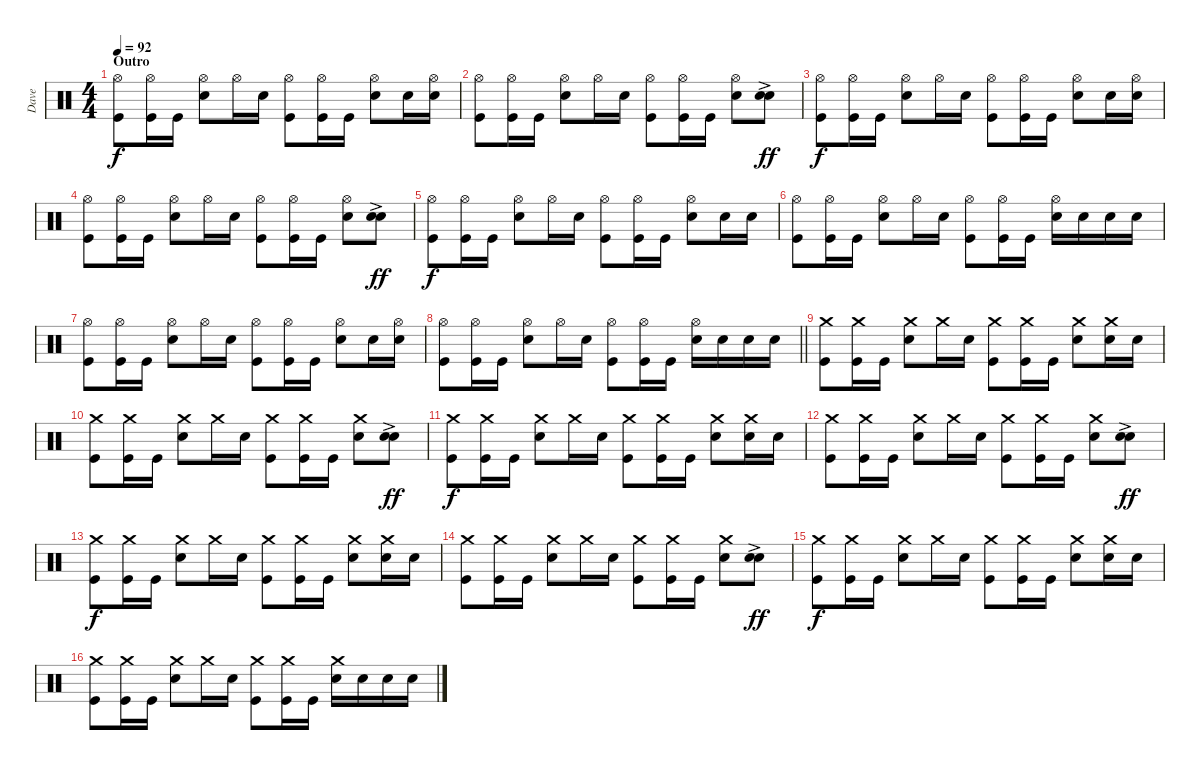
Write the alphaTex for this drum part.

\track ("Dave" "Dave") {instrument percussion}
\staff {score}
\articulation defaults
\ts (4 4)
\section ("" "Outro")
\tempo 92
\clef neutral
\ks c
("Hi-Hat (open)" "Kick (hit)").8{dy f} ("Hi-Hat (open)" "Kick (hit)").16 "Kick (hit)".16 ("Hi-Hat (open)" "Electric Snare (hit)").8 "Hi-Hat (open)".16 "Electric Snare (hit)".16 ("Hi-Hat (open)" "Kick (hit)").8 ("Hi-Hat (open)" "Kick (hit)").16 "Kick (hit)".16 ("Hi-Hat (open)" "Electric Snare (hit)").8 "Electric Snare (hit)".16 ("Hi-Hat (open)" "Electric Snare (hit)").16 |
("Hi-Hat (open)" "Kick (hit)").8 ("Hi-Hat (open)" "Kick (hit)").16 "Kick (hit)".16 ("Hi-Hat (open)" "Electric Snare (hit)").8 "Hi-Hat (open)".16 "Electric Snare (hit)".16 ("Hi-Hat (open)" "Kick (hit)").8 ("Hi-Hat (open)" "Kick (hit)").16 "Kick (hit)".16 ("Hi-Hat (open)" "Electric Snare (hit)").8 ("Electric Snare (hit)"{ac} "Electric Snare (hit)"{ac}).8{dy ff} |
("Hi-Hat (open)" "Kick (hit)").8{dy f} ("Hi-Hat (open)" "Kick (hit)").16 "Kick (hit)".16 ("Hi-Hat (open)" "Electric Snare (hit)").8 "Hi-Hat (open)".16 "Electric Snare (hit)".16 ("Hi-Hat (open)" "Kick (hit)").8 ("Hi-Hat (open)" "Kick (hit)").16 "Kick (hit)".16 ("Hi-Hat (open)" "Electric Snare (hit)").8 "Electric Snare (hit)".16 ("Hi-Hat (open)" "Electric Snare (hit)").16 |
("Hi-Hat (open)" "Kick (hit)").8 ("Hi-Hat (open)" "Kick (hit)").16 "Kick (hit)".16 ("Hi-Hat (open)" "Electric Snare (hit)").8 "Hi-Hat (open)".16 "Electric Snare (hit)".16 ("Hi-Hat (open)" "Kick (hit)").8 ("Hi-Hat (open)" "Kick (hit)").16 "Kick (hit)".16 ("Hi-Hat (open)" "Electric Snare (hit)").8 ("Electric Snare (hit)"{ac} "Electric Snare (hit)"{ac}).8{dy ff} |
("Hi-Hat (open)" "Kick (hit)").8{dy f} ("Hi-Hat (open)" "Kick (hit)").16 "Kick (hit)".16 ("Hi-Hat (open)" "Electric Snare (hit)").8 "Hi-Hat (open)".16 "Electric Snare (hit)".16 ("Hi-Hat (open)" "Kick (hit)").8 ("Hi-Hat (open)" "Kick (hit)").16 "Kick (hit)".16 ("Hi-Hat (open)" "Electric Snare (hit)").8 "Electric Snare (hit)".16 "Electric Snare (hit)".16 |
("Hi-Hat (open)" "Kick (hit)").8 ("Hi-Hat (open)" "Kick (hit)").16 "Kick (hit)".16 ("Hi-Hat (open)" "Electric Snare (hit)").8 "Hi-Hat (open)".16 "Electric Snare (hit)".16 ("Hi-Hat (open)" "Kick (hit)").8 ("Hi-Hat (open)" "Kick (hit)").16 "Kick (hit)".16 ("Hi-Hat (open)" "Electric Snare (hit)").16 "Electric Snare (hit)".16 "Electric Snare (hit)".16 "Electric Snare (hit)".16 |
("Hi-Hat (open)" "Kick (hit)").8 ("Hi-Hat (open)" "Kick (hit)").16 "Kick (hit)".16 ("Hi-Hat (open)" "Electric Snare (hit)").8 "Hi-Hat (open)".16 "Electric Snare (hit)".16 ("Hi-Hat (open)" "Kick (hit)").8 ("Hi-Hat (open)" "Kick (hit)").16 "Kick (hit)".16 ("Hi-Hat (open)" "Electric Snare (hit)").8 "Electric Snare (hit)".16 ("Hi-Hat (open)" "Electric Snare (hit)").16 |
\barLineRight lightlight
("Hi-Hat (open)" "Kick (hit)").8 ("Hi-Hat (open)" "Kick (hit)").16 "Kick (hit)".16 ("Hi-Hat (open)" "Electric Snare (hit)").8 "Hi-Hat (open)".16 "Electric Snare (hit)".16 ("Hi-Hat (open)" "Kick (hit)").8 ("Hi-Hat (open)" "Kick (hit)").16 "Kick (hit)".16 ("Hi-Hat (open)" "Electric Snare (hit)").16 "Electric Snare (hit)".16 "Electric Snare (hit)".16 "Electric Snare (hit)".16 |
\section ("" "")
("Crash medium (hit)" "Kick (hit)").8 ("Crash medium (hit)" "Kick (hit)").16 "Kick (hit)".16 ("Crash medium (hit)" "Electric Snare (hit)").8 "Crash medium (hit)".16 "Electric Snare (hit)".16 ("Crash medium (hit)" "Kick (hit)").8 ("Crash medium (hit)" "Kick (hit)").16 "Kick (hit)".16 ("Crash medium (hit)" "Electric Snare (hit)").8 ("Crash medium (hit)" "Electric Snare (hit)").16 "Electric Snare (hit)".16 |
("Crash medium (hit)" "Kick (hit)").8 ("Crash medium (hit)" "Kick (hit)").16 "Kick (hit)".16 ("Crash medium (hit)" "Electric Snare (hit)").8 "Crash medium (hit)".16 "Electric Snare (hit)".16 ("Crash medium (hit)" "Kick (hit)").8 ("Crash medium (hit)" "Kick (hit)").16 "Kick (hit)".16 ("Crash medium (hit)" "Electric Snare (hit)").8 ("Electric Snare (hit)"{ac} "Electric Snare (hit)"{ac}).8{dy ff} |
("Crash medium (hit)" "Kick (hit)").8{dy f} ("Crash medium (hit)" "Kick (hit)").16 "Kick (hit)".16 ("Crash medium (hit)" "Electric Snare (hit)").8 "Crash medium (hit)".16 "Electric Snare (hit)".16 ("Crash medium (hit)" "Kick (hit)").8 ("Crash medium (hit)" "Kick (hit)").16 "Kick (hit)".16 ("Crash medium (hit)" "Electric Snare (hit)").8 ("Crash medium (hit)" "Electric Snare (hit)").16 "Electric Snare (hit)".16 |
("Crash medium (hit)" "Kick (hit)").8 ("Crash medium (hit)" "Kick (hit)").16 "Kick (hit)".16 ("Crash medium (hit)" "Electric Snare (hit)").8 "Crash medium (hit)".16 "Electric Snare (hit)".16 ("Crash medium (hit)" "Kick (hit)").8 ("Crash medium (hit)" "Kick (hit)").16 "Kick (hit)".16 ("Crash medium (hit)" "Electric Snare (hit)").8 ("Electric Snare (hit)"{ac} "Electric Snare (hit)"{ac}).8{dy ff} |
("Crash medium (hit)" "Kick (hit)").8{dy f} ("Crash medium (hit)" "Kick (hit)").16 "Kick (hit)".16 ("Crash medium (hit)" "Electric Snare (hit)").8 "Crash medium (hit)".16 "Electric Snare (hit)".16 ("Crash medium (hit)" "Kick (hit)").8 ("Crash medium (hit)" "Kick (hit)").16 "Kick (hit)".16 ("Crash medium (hit)" "Electric Snare (hit)").8 ("Crash medium (hit)" "Electric Snare (hit)").16 "Electric Snare (hit)".16 |
("Crash medium (hit)" "Kick (hit)").8 ("Crash medium (hit)" "Kick (hit)").16 "Kick (hit)".16 ("Crash medium (hit)" "Electric Snare (hit)").8 "Crash medium (hit)".16 "Electric Snare (hit)".16 ("Crash medium (hit)" "Kick (hit)").8 ("Crash medium (hit)" "Kick (hit)").16 "Kick (hit)".16 ("Crash medium (hit)" "Electric Snare (hit)").8 ("Electric Snare (hit)"{ac} "Electric Snare (hit)"{ac}).8{dy ff} |
("Crash medium (hit)" "Kick (hit)").8{dy f} ("Crash medium (hit)" "Kick (hit)").16 "Kick (hit)".16 ("Crash medium (hit)" "Electric Snare (hit)").8 "Crash medium (hit)".16 "Electric Snare (hit)".16 ("Crash medium (hit)" "Kick (hit)").8 ("Crash medium (hit)" "Kick (hit)").16 "Kick (hit)".16 ("Crash medium (hit)" "Electric Snare (hit)").8 ("Crash medium (hit)" "Electric Snare (hit)").16 "Electric Snare (hit)".16 |
("Crash medium (hit)" "Kick (hit)").8 ("Crash medium (hit)" "Kick (hit)").16 "Kick (hit)".16 ("Crash medium (hit)" "Electric Snare (hit)").8 "Crash medium (hit)".16 "Electric Snare (hit)".16 ("Crash medium (hit)" "Kick (hit)").8 ("Crash medium (hit)" "Kick (hit)").16 "Kick (hit)".16 ("Crash medium (hit)" "Electric Snare (hit)").16 "Electric Snare (hit)".16 "Electric Snare (hit)".16 "Electric Snare (hit)".16
